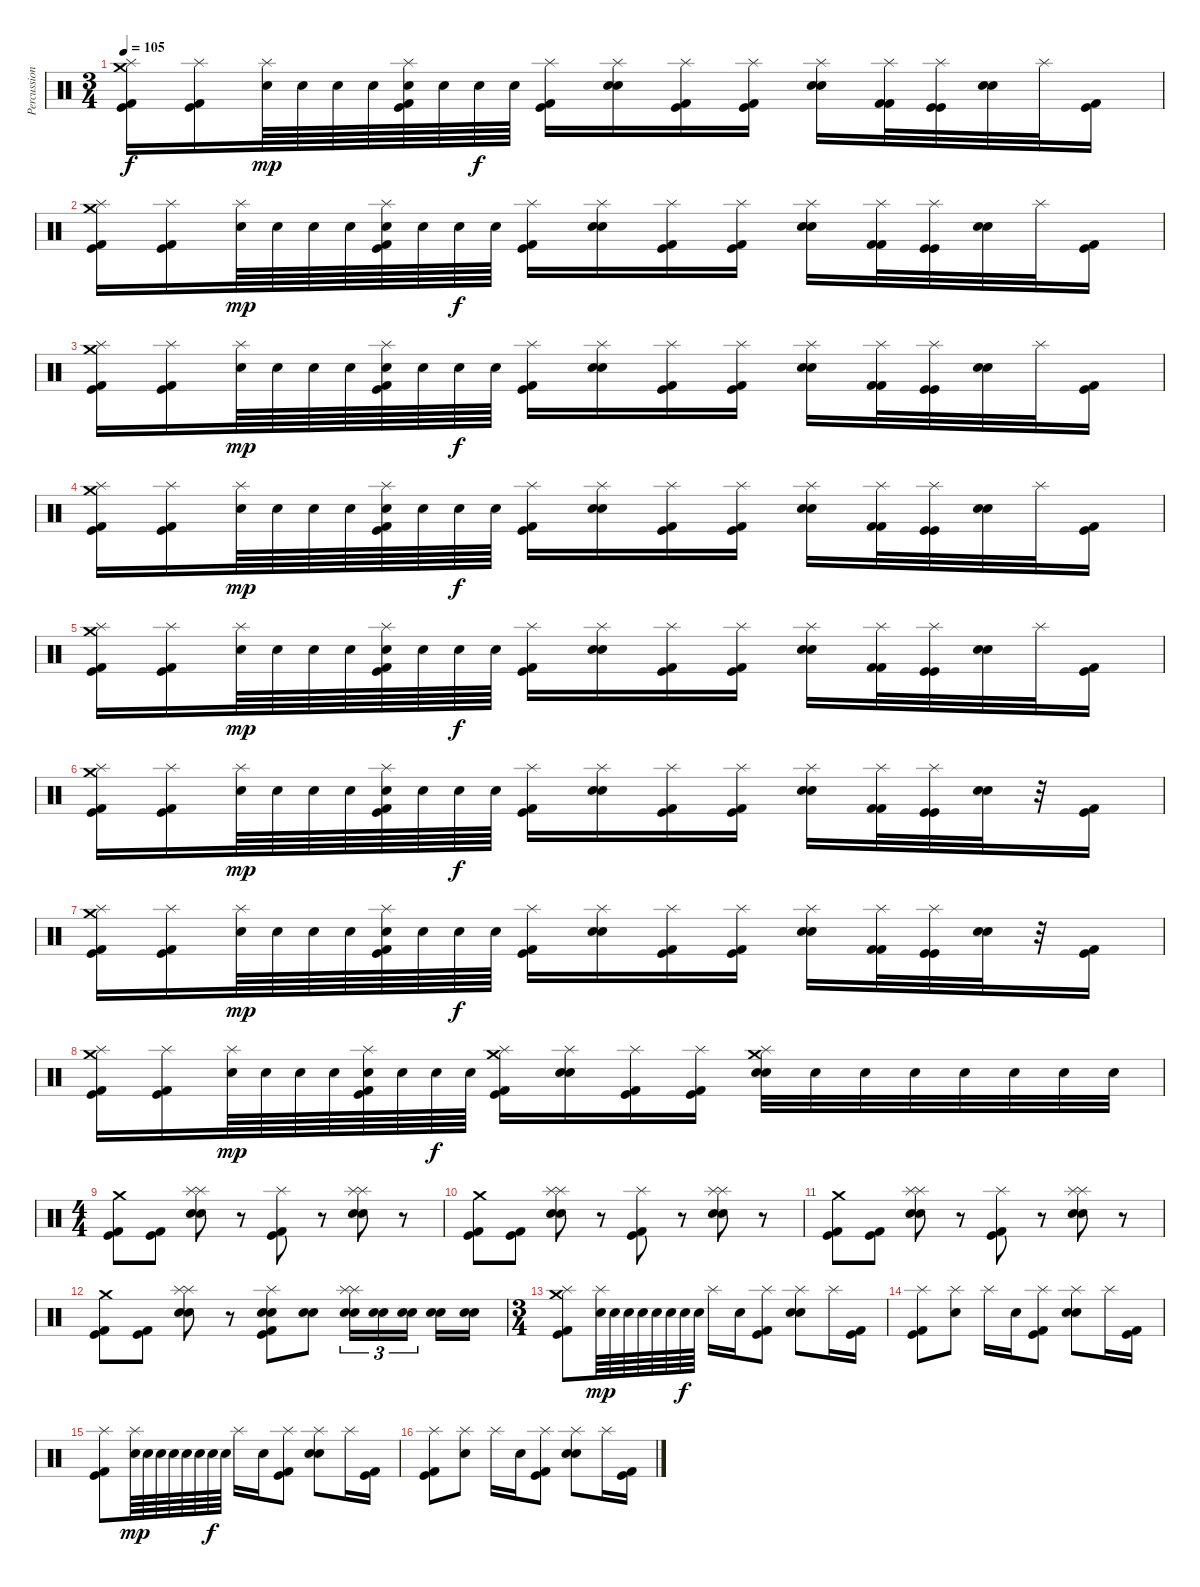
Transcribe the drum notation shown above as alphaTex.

\track ("Percussions" "Percussion") {instrument percussion}
\staff {score}
\articulation defaults
\ts (3 4)
\tempo 105
\clef neutral
\ks c
("Crash medium (hit)" "Splash (hit)" "Kick (hit) 2" "Kick (hit)").16{dy f} ("Splash (hit)" "Kick (hit) 2" "Kick (hit)").16 ("Splash (hit)" "Electric Snare (hit)").64{dy mp} "Electric Snare (hit)".64 "Electric Snare (hit)".64 "Electric Snare (hit)".64 ("Splash (hit)" "Kick (hit) 2" "Electric Snare (hit)" "Kick (hit)").64 "Electric Snare (hit)".64 "Electric Snare (hit)".64{dy f} "Electric Snare (hit)".64 ("Splash (hit)" "Kick (hit) 2" "Kick (hit)").16 ("Splash (hit)" "Electric Snare (hit)" "Snare (hit) 2").16 ("Splash (hit)" "Kick (hit)" "Kick (hit) 2").16 ("Splash (hit)" "Kick (hit) 2" "Kick (hit)").16 ("Splash (hit)" "Electric Snare (hit)" "Snare (hit) 2").16 ("Splash (hit)" "Kick (hit) 2" "Kick (hit) 2").32 ("Splash (hit)" "Kick (hit)" "Kick (hit)").32 ("Electric Snare (hit)" "Electric Snare (hit)").32 "Splash (hit)".32 ("Kick (hit) 2" "Kick (hit)").16 |
("Crash medium (hit)" "Splash (hit)" "Kick (hit) 2" "Kick (hit)").16 ("Splash (hit)" "Kick (hit) 2" "Kick (hit)").16 ("Splash (hit)" "Electric Snare (hit)").64{dy mp} "Electric Snare (hit)".64 "Electric Snare (hit)".64 "Electric Snare (hit)".64 ("Splash (hit)" "Kick (hit) 2" "Electric Snare (hit)" "Kick (hit)").64 "Electric Snare (hit)".64 "Electric Snare (hit)".64{dy f} "Electric Snare (hit)".64 ("Splash (hit)" "Kick (hit) 2" "Kick (hit)").16 ("Splash (hit)" "Electric Snare (hit)" "Snare (hit) 2").16 ("Splash (hit)" "Kick (hit)" "Kick (hit) 2").16 ("Splash (hit)" "Kick (hit) 2" "Kick (hit)").16 ("Splash (hit)" "Electric Snare (hit)" "Snare (hit) 2").16 ("Splash (hit)" "Kick (hit) 2" "Kick (hit) 2").32 ("Splash (hit)" "Kick (hit)" "Kick (hit)").32 ("Electric Snare (hit)" "Electric Snare (hit)").32 "Splash (hit)".32 ("Kick (hit) 2" "Kick (hit)").16 |
("Crash medium (hit)" "Splash (hit)" "Kick (hit) 2" "Kick (hit)").16 ("Splash (hit)" "Kick (hit) 2" "Kick (hit)").16 ("Splash (hit)" "Electric Snare (hit)").64{dy mp} "Electric Snare (hit)".64 "Electric Snare (hit)".64 "Electric Snare (hit)".64 ("Splash (hit)" "Kick (hit) 2" "Electric Snare (hit)" "Kick (hit)").64 "Electric Snare (hit)".64 "Electric Snare (hit)".64{dy f} "Electric Snare (hit)".64 ("Splash (hit)" "Kick (hit) 2" "Kick (hit)").16 ("Splash (hit)" "Electric Snare (hit)" "Snare (hit) 2").16 ("Splash (hit)" "Kick (hit)" "Kick (hit) 2").16 ("Splash (hit)" "Kick (hit) 2" "Kick (hit)").16 ("Splash (hit)" "Electric Snare (hit)" "Snare (hit) 2").16 ("Splash (hit)" "Kick (hit) 2" "Kick (hit) 2").32 ("Splash (hit)" "Kick (hit)" "Kick (hit)").32 ("Electric Snare (hit)" "Electric Snare (hit)").32 "Splash (hit)".32 ("Kick (hit) 2" "Kick (hit)").16 |
("Crash medium (hit)" "Splash (hit)" "Kick (hit) 2" "Kick (hit)").16 ("Splash (hit)" "Kick (hit) 2" "Kick (hit)").16 ("Splash (hit)" "Electric Snare (hit)").64{dy mp} "Electric Snare (hit)".64 "Electric Snare (hit)".64 "Electric Snare (hit)".64 ("Splash (hit)" "Kick (hit) 2" "Electric Snare (hit)" "Kick (hit)").64 "Electric Snare (hit)".64 "Electric Snare (hit)".64{dy f} "Electric Snare (hit)".64 ("Splash (hit)" "Kick (hit) 2" "Kick (hit)").16 ("Splash (hit)" "Electric Snare (hit)" "Snare (hit) 2").16 ("Splash (hit)" "Kick (hit)" "Kick (hit) 2").16 ("Splash (hit)" "Kick (hit) 2" "Kick (hit)").16 ("Splash (hit)" "Electric Snare (hit)" "Snare (hit) 2").16 ("Splash (hit)" "Kick (hit) 2" "Kick (hit) 2").32 ("Splash (hit)" "Kick (hit)" "Kick (hit)").32 ("Electric Snare (hit)" "Electric Snare (hit)").32 "Splash (hit)".32 ("Kick (hit) 2" "Kick (hit)").16 |
("Crash medium (hit)" "Splash (hit)" "Kick (hit) 2" "Kick (hit)").16 ("Splash (hit)" "Kick (hit) 2" "Kick (hit)").16 ("Splash (hit)" "Electric Snare (hit)").64{dy mp} "Electric Snare (hit)".64 "Electric Snare (hit)".64 "Electric Snare (hit)".64 ("Splash (hit)" "Kick (hit) 2" "Electric Snare (hit)" "Kick (hit)").64 "Electric Snare (hit)".64 "Electric Snare (hit)".64{dy f} "Electric Snare (hit)".64 ("Splash (hit)" "Kick (hit) 2" "Kick (hit)").16 ("Splash (hit)" "Electric Snare (hit)" "Snare (hit) 2").16 ("Splash (hit)" "Kick (hit)" "Kick (hit) 2").16 ("Splash (hit)" "Kick (hit) 2" "Kick (hit)").16 ("Splash (hit)" "Electric Snare (hit)" "Snare (hit) 2").16 ("Splash (hit)" "Kick (hit) 2" "Kick (hit) 2").32 ("Splash (hit)" "Kick (hit)" "Kick (hit)").32 ("Electric Snare (hit)" "Electric Snare (hit)").32 "Splash (hit)".32 ("Kick (hit) 2" "Kick (hit)").16 |
("Crash medium (hit)" "Splash (hit)" "Kick (hit) 2" "Kick (hit)").16 ("Splash (hit)" "Kick (hit) 2" "Kick (hit)").16 ("Splash (hit)" "Electric Snare (hit)").64{dy mp} "Electric Snare (hit)".64 "Electric Snare (hit)".64 "Electric Snare (hit)".64 ("Splash (hit)" "Kick (hit) 2" "Electric Snare (hit)" "Kick (hit)").64 "Electric Snare (hit)".64 "Electric Snare (hit)".64{dy f} "Electric Snare (hit)".64 ("Splash (hit)" "Kick (hit) 2" "Kick (hit)").16 ("Splash (hit)" "Electric Snare (hit)" "Snare (hit) 2").16 ("Splash (hit)" "Kick (hit)" "Kick (hit) 2").16 ("Splash (hit)" "Kick (hit) 2" "Kick (hit)").16 ("Splash (hit)" "Electric Snare (hit)" "Snare (hit) 2").16 ("Splash (hit)" "Kick (hit) 2" "Kick (hit) 2").32 ("Splash (hit)" "Kick (hit)" "Kick (hit)").32 ("Electric Snare (hit)" "Electric Snare (hit)").32 r.32 ("Kick (hit) 2" "Kick (hit)").16 |
("Crash medium (hit)" "Splash (hit)" "Kick (hit) 2" "Kick (hit)").16 ("Splash (hit)" "Kick (hit) 2" "Kick (hit)").16 ("Splash (hit)" "Electric Snare (hit)").64{dy mp} "Electric Snare (hit)".64 "Electric Snare (hit)".64 "Electric Snare (hit)".64 ("Splash (hit)" "Kick (hit) 2" "Electric Snare (hit)" "Kick (hit)").64 "Electric Snare (hit)".64 "Electric Snare (hit)".64{dy f} "Electric Snare (hit)".64 ("Splash (hit)" "Kick (hit) 2" "Kick (hit)").16 ("Splash (hit)" "Electric Snare (hit)" "Snare (hit) 2").16 ("Splash (hit)" "Kick (hit)" "Kick (hit) 2").16 ("Splash (hit)" "Kick (hit) 2" "Kick (hit)").16 ("Splash (hit)" "Electric Snare (hit)" "Snare (hit) 2").16 ("Splash (hit)" "Kick (hit) 2" "Kick (hit) 2").32 ("Splash (hit)" "Kick (hit)" "Kick (hit)").32 ("Electric Snare (hit)" "Electric Snare (hit)").32 r.32 ("Kick (hit) 2" "Kick (hit)").16 |
("Crash medium (hit)" "Splash (hit)" "Kick (hit) 2" "Kick (hit)").16 ("Splash (hit)" "Kick (hit) 2" "Kick (hit)").16 ("Splash (hit)" "Electric Snare (hit)").64{dy mp} "Electric Snare (hit)".64 "Electric Snare (hit)".64 "Electric Snare (hit)".64 ("Splash (hit)" "Kick (hit) 2" "Electric Snare (hit)" "Kick (hit)").64 "Electric Snare (hit)".64 "Electric Snare (hit)".64{dy f} "Electric Snare (hit)".64 ("Crash medium (hit)" "Splash (hit)" "Kick (hit) 2" "Kick (hit)").16 ("Splash (hit)" "Electric Snare (hit)" "Snare (hit) 2").16 ("Splash (hit)" "Kick (hit)" "Kick (hit) 2").16 ("Splash (hit)" "Kick (hit) 2" "Kick (hit)").16 ("Crash medium (hit)" "Splash (hit)" "Electric Snare (hit)" "Snare (hit) 2").32 "Electric Snare (hit)".32 "Electric Snare (hit)".32 "Electric Snare (hit)".32 "Electric Snare (hit)".32 "Electric Snare (hit)".32 "Electric Snare (hit)".32 "Electric Snare (hit)".32 |
\ts (4 4)
("Crash medium (hit)" "Kick (hit) 2" "Kick (hit)").8 ("Kick (hit) 2" "Kick (hit)").8 ("Splash (hit)" "Splash (hit)" "Electric Snare (hit)" "Electric Snare (hit)").8 r.8 ("Splash (hit)" "Kick (hit) 2" "Kick (hit)").8 r.8 ("Splash (hit)" "Splash (hit)" "Electric Snare (hit)" "Electric Snare (hit)").8 r.8 |
("Crash medium (hit)" "Kick (hit) 2" "Kick (hit)").8 ("Kick (hit) 2" "Kick (hit)").8 ("Splash (hit)" "Splash (hit)" "Electric Snare (hit)" "Electric Snare (hit)").8 r.8 ("Splash (hit)" "Kick (hit) 2" "Kick (hit)").8 r.8 ("Splash (hit)" "Splash (hit)" "Electric Snare (hit)" "Electric Snare (hit)").8 r.8 |
("Crash medium (hit)" "Kick (hit) 2" "Kick (hit)").8 ("Kick (hit) 2" "Kick (hit)").8 ("Splash (hit)" "Splash (hit)" "Electric Snare (hit)" "Electric Snare (hit)").8 r.8 ("Splash (hit)" "Kick (hit) 2" "Kick (hit)").8 r.8 ("Splash (hit)" "Splash (hit)" "Electric Snare (hit)" "Electric Snare (hit)").8 r.8 |
("Crash medium (hit)" "Kick (hit) 2" "Kick (hit)").8 ("Kick (hit) 2" "Kick (hit)").8 ("Splash (hit)" "Splash (hit)" "Electric Snare (hit)" "Electric Snare (hit)").8 r.8 ("Splash (hit)" "Electric Snare (hit)" "Electric Snare (hit)" "Kick (hit) 2" "Kick (hit)").8 ("Electric Snare (hit)" "Electric Snare (hit)").8 ("Splash (hit)" "Splash (hit)" "Electric Snare (hit)" "Electric Snare (hit)").16{tu (3 2)} ("Electric Snare (hit)" "Electric Snare (hit)").16{tu (3 2)} ("Electric Snare (hit)" "Electric Snare (hit)").16{tu (3 2)} ("Electric Snare (hit)" "Electric Snare (hit)").16 ("Electric Snare (hit)" "Electric Snare (hit)").16 |
\ts (3 4)
("Crash medium (hit)" "Splash (hit)" "Kick (hit) 2" "Kick (hit)").8 ("Splash (hit)" "Electric Snare (hit)").64{dy mp} "Electric Snare (hit)".64 "Electric Snare (hit)".64 "Electric Snare (hit)".64 "Electric Snare (hit)".64 "Electric Snare (hit)".64 "Electric Snare (hit)".64{dy f} "Electric Snare (hit)".64 "Splash (hit)".16 "Snare (hit) 2".16 ("Splash (hit)" "Kick (hit)" "Kick (hit) 2").8 ("Splash (hit)" "Electric Snare (hit)" "Snare (hit) 2").8 "Splash (hit)".16 ("Kick (hit) 2" "Kick (hit)").16 |
("Splash (hit)" "Kick (hit) 2" "Kick (hit)").8 ("Splash (hit)" "Electric Snare (hit)").8 "Splash (hit)".16 "Snare (hit) 2".16 ("Splash (hit)" "Kick (hit)" "Kick (hit) 2").8 ("Splash (hit)" "Electric Snare (hit)" "Snare (hit) 2").8 "Splash (hit)".16 ("Kick (hit) 2" "Kick (hit)").16 |
("Splash (hit)" "Kick (hit) 2" "Kick (hit)").8 ("Splash (hit)" "Electric Snare (hit)").64{dy mp} "Electric Snare (hit)".64 "Electric Snare (hit)".64 "Electric Snare (hit)".64 "Electric Snare (hit)".64 "Electric Snare (hit)".64 "Electric Snare (hit)".64{dy f} "Electric Snare (hit)".64 "Splash (hit)".16 "Snare (hit) 2".16 ("Splash (hit)" "Kick (hit)" "Kick (hit) 2").8 ("Splash (hit)" "Electric Snare (hit)" "Snare (hit) 2").8 "Splash (hit)".16 ("Kick (hit) 2" "Kick (hit)").16 |
("Splash (hit)" "Kick (hit) 2" "Kick (hit)").8 ("Splash (hit)" "Electric Snare (hit)").8 "Splash (hit)".16 "Snare (hit) 2".16 ("Splash (hit)" "Kick (hit)" "Kick (hit) 2").8 ("Splash (hit)" "Electric Snare (hit)" "Snare (hit) 2").8 "Splash (hit)".16 ("Kick (hit) 2" "Kick (hit)").16
